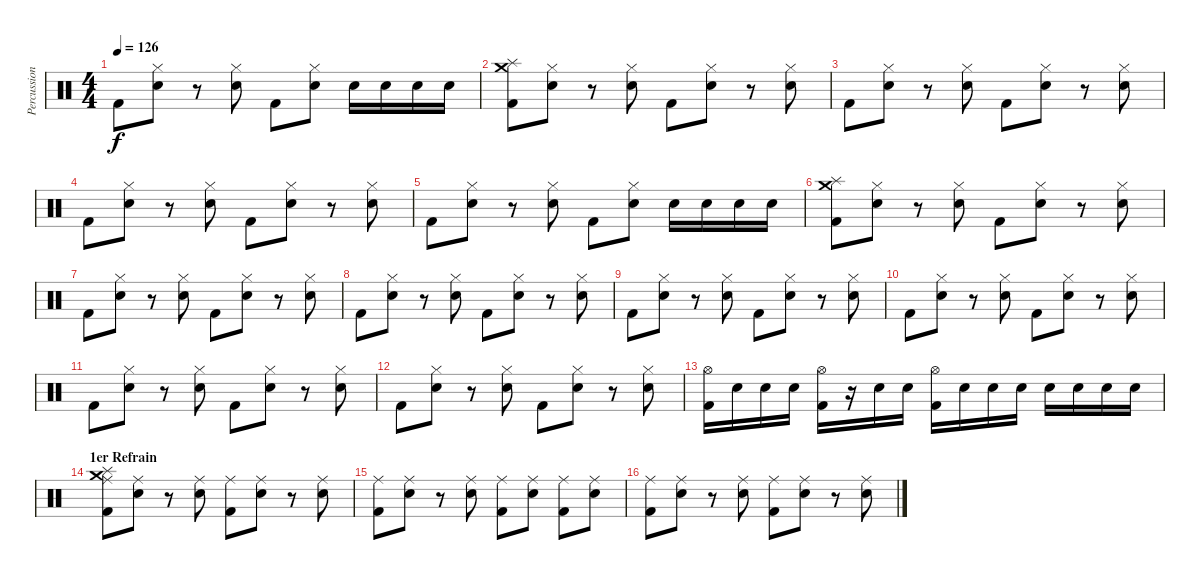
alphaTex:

\track ("Percussions" "Percussion") {instrument percussion}
\staff {score}
\articulation defaults
\ts (4 4)
\tempo 126
\clef neutral
\ks c "Kick (hit) 2".8{dy f}
("Snare (hit) 2" "Hi-Hat (closed)").8 r.8 ("Snare (hit) 2" "Hi-Hat (closed)").8 "Kick (hit) 2".8 ("Snare (hit) 2" "Hi-Hat (closed)").8 "Snare (hit) 2".16 "Snare (hit) 2".16 "Snare (hit) 2".16 "Snare (hit) 2".16 |
("Kick (hit) 2" "Splash (hit)" "Crash medium (hit)").8 ("Snare (hit) 2" "Hi-Hat (closed)").8 r.8 ("Snare (hit) 2" "Hi-Hat (closed)").8 "Kick (hit) 2".8 ("Snare (hit) 2" "Hi-Hat (closed)").8 r.8 ("Snare (hit) 2" "Hi-Hat (closed)").8 |
"Kick (hit) 2".8 ("Snare (hit) 2" "Hi-Hat (closed)").8 r.8 ("Snare (hit) 2" "Hi-Hat (closed)").8 "Kick (hit) 2".8 ("Snare (hit) 2" "Hi-Hat (closed)").8 r.8 ("Snare (hit) 2" "Hi-Hat (closed)").8 |
"Kick (hit) 2".8 ("Snare (hit) 2" "Hi-Hat (closed)").8 r.8 ("Snare (hit) 2" "Hi-Hat (closed)").8 "Kick (hit) 2".8 ("Snare (hit) 2" "Hi-Hat (closed)").8 r.8 ("Snare (hit) 2" "Hi-Hat (closed)").8 |
"Kick (hit) 2".8 ("Snare (hit) 2" "Hi-Hat (closed)").8 r.8 ("Snare (hit) 2" "Hi-Hat (closed)").8 "Kick (hit) 2".8 ("Snare (hit) 2" "Hi-Hat (closed)").8 "Snare (hit) 2".16 "Snare (hit) 2".16 "Snare (hit) 2".16 "Snare (hit) 2".16 |
("Kick (hit) 2" "Splash (hit)" "Crash medium (hit)").8 ("Snare (hit) 2" "Hi-Hat (closed)").8 r.8 ("Snare (hit) 2" "Hi-Hat (closed)").8 "Kick (hit) 2".8 ("Snare (hit) 2" "Hi-Hat (closed)").8 r.8 ("Snare (hit) 2" "Hi-Hat (closed)").8 |
"Kick (hit) 2".8 ("Snare (hit) 2" "Hi-Hat (closed)").8 r.8 ("Snare (hit) 2" "Hi-Hat (closed)").8 "Kick (hit) 2".8 ("Snare (hit) 2" "Hi-Hat (closed)").8 r.8 ("Snare (hit) 2" "Hi-Hat (closed)").8 |
"Kick (hit) 2".8 ("Snare (hit) 2" "Hi-Hat (closed)").8 r.8 ("Snare (hit) 2" "Hi-Hat (closed)").8 "Kick (hit) 2".8 ("Snare (hit) 2" "Hi-Hat (closed)").8 r.8 ("Snare (hit) 2" "Hi-Hat (closed)").8 |
"Kick (hit) 2".8 ("Snare (hit) 2" "Hi-Hat (closed)").8 r.8 ("Snare (hit) 2" "Hi-Hat (closed)").8 "Kick (hit) 2".8 ("Snare (hit) 2" "Hi-Hat (closed)").8 r.8 ("Snare (hit) 2" "Hi-Hat (closed)").8 |
"Kick (hit) 2".8 ("Snare (hit) 2" "Hi-Hat (closed)").8 r.8 ("Snare (hit) 2" "Hi-Hat (closed)").8 "Kick (hit) 2".8 ("Snare (hit) 2" "Hi-Hat (closed)").8 r.8 ("Snare (hit) 2" "Hi-Hat (closed)").8 |
"Kick (hit) 2".8 ("Snare (hit) 2" "Hi-Hat (closed)").8 r.8 ("Snare (hit) 2" "Hi-Hat (closed)").8 "Kick (hit) 2".8 ("Snare (hit) 2" "Hi-Hat (closed)").8 r.8 ("Snare (hit) 2" "Hi-Hat (closed)").8 |
"Kick (hit) 2".8 ("Snare (hit) 2" "Hi-Hat (closed)").8 r.8 ("Snare (hit) 2" "Hi-Hat (closed)").8 "Kick (hit) 2".8 ("Snare (hit) 2" "Hi-Hat (closed)").8 r.8 ("Snare (hit) 2" "Hi-Hat (closed)").8 |
("Kick (hit) 2" "Hi-Hat (open)").16 "Snare (hit) 2".16 "Snare (hit) 2".16 "Snare (hit) 2".16 ("Kick (hit) 2" "Hi-Hat (open)").16 r.16 "Snare (hit) 2".16 "Snare (hit) 2".16 ("Kick (hit) 2" "Hi-Hat (open)").16 "Snare (hit) 2".16 "Snare (hit) 2".16 "Snare (hit) 2".16 "Snare (hit) 2".16 "Snare (hit) 2".16 "Snare (hit) 2".16 "Snare (hit) 2".16 |
\section ("" "1er Refrain")
("Kick (hit) 2" "Splash (hit)" "Crash medium (hit)" "Ride (middle)").8 ("Snare (hit) 2" "Ride (middle)").8 r.8 ("Snare (hit) 2" "Ride (middle)").8 ("Kick (hit) 2" "Ride (middle)").8 ("Snare (hit) 2" "Ride (middle)").8 r.8 ("Snare (hit) 2" "Ride (middle)").8 |
("Kick (hit) 2" "Ride (middle)").8 ("Snare (hit) 2" "Ride (middle)").8 r.8 ("Snare (hit) 2" "Ride (middle)").8 ("Kick (hit) 2" "Ride (middle)").8 ("Snare (hit) 2" "Ride (middle)").8 ("Kick (hit) 2" "Ride (middle)").8 ("Snare (hit) 2" "Ride (middle)").8 |
("Kick (hit) 2" "Ride (middle)").8 ("Snare (hit) 2" "Ride (middle)").8 r.8 ("Snare (hit) 2" "Ride (middle)").8 ("Kick (hit) 2" "Ride (middle)").8 ("Snare (hit) 2" "Ride (middle)").8 r.8 ("Snare (hit) 2" "Ride (middle)").8
